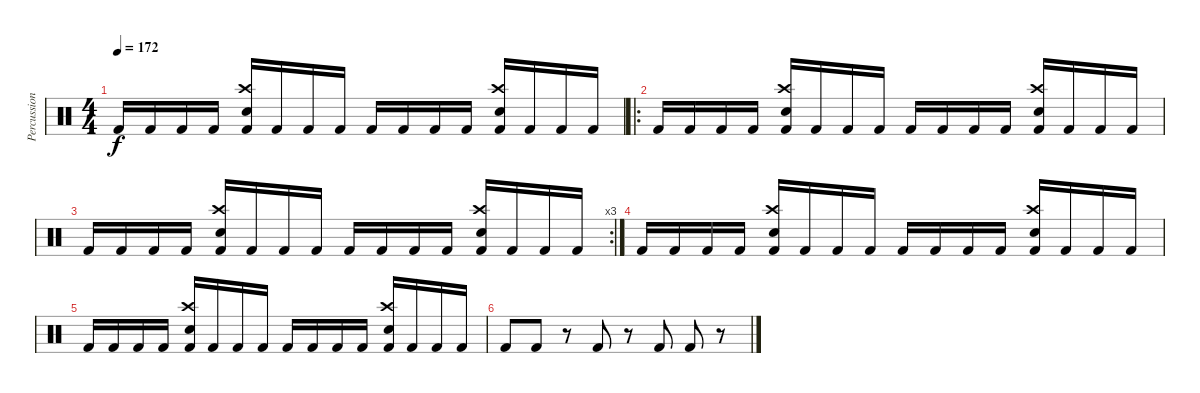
\track ("Percussion" "Percussion") {instrument percussion}
\staff {score}
\articulation defaults
\ts (4 4)
\tempo 172
\clef neutral
\ks c "Kick (hit) 2".16{dy f} "Kick (hit) 2".16 "Kick (hit) 2".16 "Kick (hit) 2".16
("Crash high (hit)" "Electric Snare (hit)" "Kick (hit) 2").16 "Kick (hit) 2".16 "Kick (hit) 2".16 "Kick (hit) 2".16 "Kick (hit) 2".16 "Kick (hit) 2".16 "Kick (hit) 2".16 "Kick (hit) 2".16 ("Crash high (hit)" "Electric Snare (hit)" "Kick (hit) 2").16 "Kick (hit) 2".16 "Kick (hit) 2".16 "Kick (hit) 2".16 |
\ro "Kick (hit) 2".16 "Kick (hit) 2".16 "Kick (hit) 2".16 "Kick (hit) 2".16
("Crash high (hit)" "Electric Snare (hit)" "Kick (hit) 2").16 "Kick (hit) 2".16 "Kick (hit) 2".16 "Kick (hit) 2".16 "Kick (hit) 2".16 "Kick (hit) 2".16 "Kick (hit) 2".16 "Kick (hit) 2".16 ("Crash high (hit)" "Electric Snare (hit)" "Kick (hit) 2").16 "Kick (hit) 2".16 "Kick (hit) 2".16 "Kick (hit) 2".16 |
\rc 3 "Kick (hit) 2".16 "Kick (hit) 2".16 "Kick (hit) 2".16 "Kick (hit) 2".16
("Crash high (hit)" "Electric Snare (hit)" "Kick (hit) 2").16 "Kick (hit) 2".16 "Kick (hit) 2".16 "Kick (hit) 2".16 "Kick (hit) 2".16 "Kick (hit) 2".16 "Kick (hit) 2".16 "Kick (hit) 2".16 ("Crash high (hit)" "Electric Snare (hit)" "Kick (hit) 2").16 "Kick (hit) 2".16 "Kick (hit) 2".16 "Kick (hit) 2".16 |
"Kick (hit) 2".16 "Kick (hit) 2".16 "Kick (hit) 2".16 "Kick (hit) 2".16 ("Crash high (hit)" "Electric Snare (hit)" "Kick (hit) 2").16 "Kick (hit) 2".16 "Kick (hit) 2".16 "Kick (hit) 2".16 "Kick (hit) 2".16 "Kick (hit) 2".16 "Kick (hit) 2".16 "Kick (hit) 2".16 ("Crash high (hit)" "Electric Snare (hit)" "Kick (hit) 2").16 "Kick (hit) 2".16 "Kick (hit) 2".16 "Kick (hit) 2".16 |
"Kick (hit) 2".16 "Kick (hit) 2".16 "Kick (hit) 2".16 "Kick (hit) 2".16 ("Crash high (hit)" "Electric Snare (hit)" "Kick (hit) 2").16 "Kick (hit) 2".16 "Kick (hit) 2".16 "Kick (hit) 2".16 "Kick (hit) 2".16 "Kick (hit) 2".16 "Kick (hit) 2".16 "Kick (hit) 2".16 ("Crash high (hit)" "Electric Snare (hit)" "Kick (hit) 2").16 "Kick (hit) 2".16 "Kick (hit) 2".16 "Kick (hit) 2".16 |
"Kick (hit) 2".8 "Kick (hit) 2".8 r.8 "Kick (hit) 2".8 r.8 "Kick (hit) 2".8 "Kick (hit) 2".8 r.8
